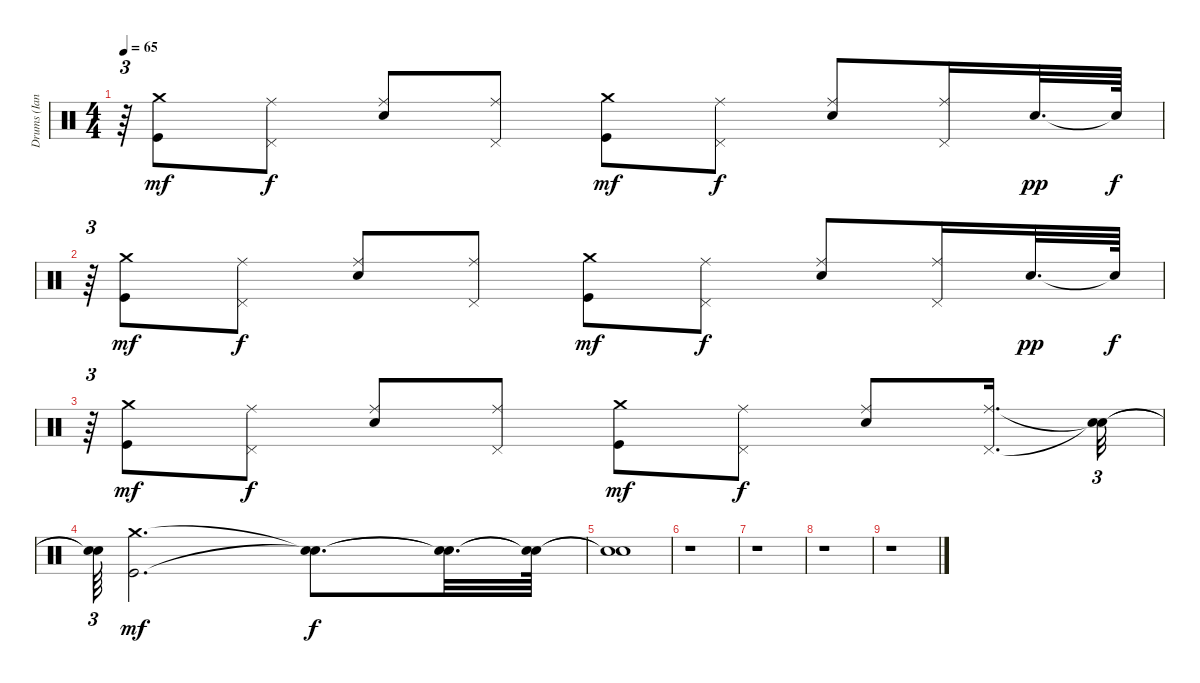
\track ("Drums (Ian Paice)" "Drums (Ian") {instrument percussion}
\staff {score}
\articulation defaults
\ts (4 4)
\tempo 65
\clef neutral
\ks c
r.64{tu (3 2) dy f} ("Crash medium (hit)" "Kick (hit)").8{dy mf} ("Ride (middle)" "Pedal Hi-Hat (hit)").8{dy f} ("Ride (middle)" "Electric Snare (hit)").8 ("Ride (middle)" "Pedal Hi-Hat (hit)").8 ("Crash medium (hit)" "Kick (hit)").8{dy mf} ("Ride (middle)" "Pedal Hi-Hat (hit)").8{dy f} ("Ride (middle)" "Electric Snare (hit)").8 ("Ride (middle)" "Pedal Hi-Hat (hit)").16 "Electric Snare (hit)".32{d dy pp} "Snare (hit)"{t}.64{dy f} |
r.64{tu (3 2)} ("Crash medium (hit)" "Kick (hit)").8{dy mf} ("Ride (middle)" "Pedal Hi-Hat (hit)").8{dy f} ("Ride (middle)" "Electric Snare (hit)").8 ("Ride (middle)" "Pedal Hi-Hat (hit)").8 ("Crash medium (hit)" "Kick (hit)").8{dy mf} ("Ride (middle)" "Pedal Hi-Hat (hit)").8{dy f} ("Ride (middle)" "Electric Snare (hit)").8 ("Ride (middle)" "Pedal Hi-Hat (hit)").16 "Electric Snare (hit)".32{d dy pp} "Snare (hit)"{t}.64{dy f} |
r.64{tu (3 2)} ("Crash medium (hit)" "Kick (hit)").8{dy mf} ("Ride (middle)" "Pedal Hi-Hat (hit)").8{dy f} ("Ride (middle)" "Electric Snare (hit)").8 ("Ride (middle)" "Pedal Hi-Hat (hit)").8 ("Crash medium (hit)" "Kick (hit)").8{dy mf} ("Ride (middle)" "Pedal Hi-Hat (hit)").8{dy f} ("Ride (middle)" "Electric Snare (hit)").8 ("Ride (middle)" "Pedal Hi-Hat (hit)").16{d} ("Snare (hit)"{t} "Snare (hit)"{t}).32{tu (3 2)} |
("Snare (hit)"{t} "Snare (hit)"{t}).64{tu (3 2)} ("Crash medium (hit)" "Kick (hit)").2{d dy mf} ("Snare (hit)"{t} "Snare (hit)"{t}).8{d dy f} ("Snare (hit)"{t} "Snare (hit)"{t}).32{d} ("Snare (hit)"{t} "Snare (hit)"{t}).64 |
("Snare (hit)"{t} "Snare (hit)"{t}).1 |
r.1 |
r.1 |
r.1 |
r.1
